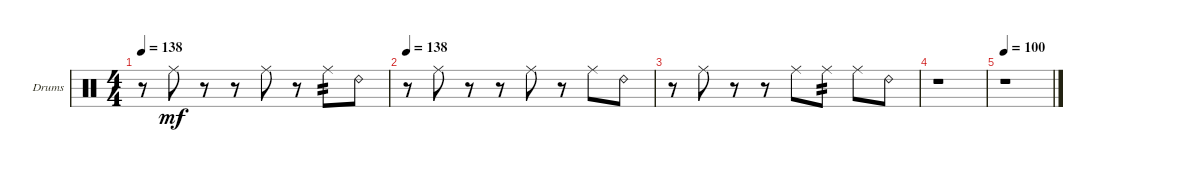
\defaultSystemsLayout 4
\bracketExtendMode groupsimilarinstruments
\firstSystemTrackNameOrientation horizontal
\otherSystemsTrackNameOrientation horizontal
\track ("Valverde Drums" "Drums") {instrument percussion}
\staff {score}
\articulation defaults
\ts (4 4)
\tempo 138
\clef neutral
\ks c
r.8{dy mf} "Ride (middle)".8 r.8 r.8 "Ride (middle)".8 r.8 "Ride (middle)".8{tp 2} "Ride (bell) 2".8 |
\tempo 138
r.8 "Ride (middle)".8 r.8 r.8 "Ride (middle)".8 r.8 "Ride (middle)".8 "Ride (bell) 2".8 |
r.8 "Ride (middle)".8 r.8 r.8 "Ride (middle)".8 "Ride (middle)".8{tp 2} "Ride (middle)".8 "Ride (bell) 2".8 |
r.1 |
\tempo 100
r.1
